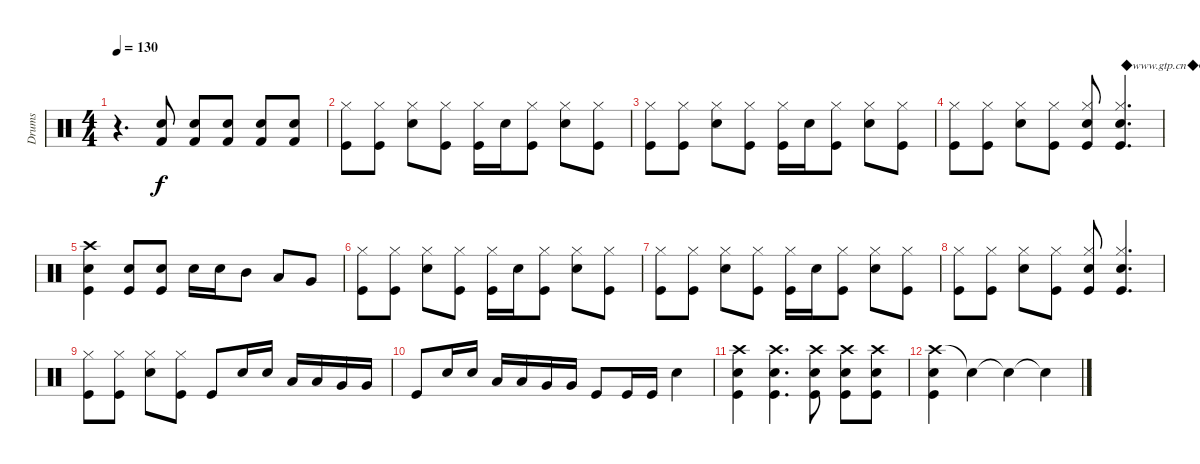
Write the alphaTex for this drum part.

\track ("Drums" "Drums") {instrument percussion}
\staff {score}
\articulation defaults
\ts (4 4)
\tempo 130
\clef neutral
\ks c
r.4{d dy f} ("Kick (hit) 2" "Snare (hit) 2").8 ("Kick (hit) 2" "Snare (hit) 2").8 ("Kick (hit) 2" "Snare (hit) 2").8 ("Kick (hit) 2" "Snare (hit) 2").8 ("Kick (hit) 2" "Snare (hit) 2").8 |
("Hi-Hat (closed)" "Kick (hit)").8 ("Hi-Hat (closed)" "Kick (hit)").8 ("Hi-Hat (closed)" "Snare (hit) 2").8 ("Hi-Hat (closed)" "Kick (hit)").8 ("Hi-Hat (closed)" "Kick (hit)").16 "Snare (hit) 2".16 ("Hi-Hat (closed)" "Kick (hit)").8 ("Hi-Hat (closed)" "Snare (hit) 2").8 ("Hi-Hat (closed)" "Kick (hit)").8 |
("Hi-Hat (closed)" "Kick (hit)").8 ("Hi-Hat (closed)" "Kick (hit)").8 ("Hi-Hat (closed)" "Snare (hit) 2").8 ("Hi-Hat (closed)" "Kick (hit)").8 ("Hi-Hat (closed)" "Kick (hit)").16 "Snare (hit) 2".16 ("Hi-Hat (closed)" "Kick (hit)").8 ("Hi-Hat (closed)" "Snare (hit) 2").8 ("Hi-Hat (closed)" "Kick (hit)").8 |
("Hi-Hat (closed)" "Kick (hit)").8 ("Hi-Hat (closed)" "Kick (hit)").8 ("Hi-Hat (closed)" "Snare (hit) 2").8 ("Hi-Hat (closed)" "Kick (hit)").8 ("Hi-Hat (closed)" "Snare (hit) 2" "Kick (hit)").8 ("Hi-Hat (closed)" "Snare (hit) 2" "Kick (hit)").4{d txt "◆www.gtp.cn◆GTP中文网为您提供优秀的GTP！"} |
("Crash high (hit)" "Snare (hit) 2" "Kick (hit)").4 ("Snare (hit) 2" "Kick (hit)").8 ("Snare (hit) 2" "Kick (hit)").8 "Snare (hit) 2".16 "Snare (hit) 2".16 "Mid Tom (hit)".8 "Low Tom (hit)".8 "Very Low Tom (hit)".8 |
("Hi-Hat (closed)" "Kick (hit)").8 ("Hi-Hat (closed)" "Kick (hit)").8 ("Hi-Hat (closed)" "Snare (hit) 2").8 ("Hi-Hat (closed)" "Kick (hit)").8 ("Hi-Hat (closed)" "Kick (hit)").16 "Snare (hit) 2".16 ("Hi-Hat (closed)" "Kick (hit)").8 ("Hi-Hat (closed)" "Snare (hit) 2").8 ("Hi-Hat (closed)" "Kick (hit)").8 |
("Hi-Hat (closed)" "Kick (hit)").8 ("Hi-Hat (closed)" "Kick (hit)").8 ("Hi-Hat (closed)" "Snare (hit) 2").8 ("Hi-Hat (closed)" "Kick (hit)").8 ("Hi-Hat (closed)" "Kick (hit)").16 "Snare (hit) 2".16 ("Hi-Hat (closed)" "Kick (hit)").8 ("Hi-Hat (closed)" "Snare (hit) 2").8 ("Hi-Hat (closed)" "Kick (hit)").8 |
("Hi-Hat (closed)" "Kick (hit)").8 ("Hi-Hat (closed)" "Kick (hit)").8 ("Hi-Hat (closed)" "Snare (hit) 2").8 ("Hi-Hat (closed)" "Kick (hit)").8 ("Hi-Hat (closed)" "Snare (hit) 2" "Kick (hit)").8 ("Hi-Hat (closed)" "Snare (hit) 2" "Kick (hit)").4{d} |
("Hi-Hat (closed)" "Kick (hit)").8 ("Hi-Hat (closed)" "Kick (hit)").8 ("Hi-Hat (closed)" "Snare (hit) 2").8 ("Hi-Hat (closed)" "Kick (hit)").8 "Kick (hit)".8 "Snare (hit) 2".16 "Snare (hit) 2".16 "Low Tom (hit)".16 "Low Tom (hit)".16 "Very Low Tom (hit)".16 "Very Low Tom (hit)".16 |
"Kick (hit)".8 "Snare (hit) 2".16 "Snare (hit) 2".16 "Low Tom (hit)".16 "Low Tom (hit)".16 "Very Low Tom (hit)".16 "Very Low Tom (hit)".16 "Kick (hit)".8 "Kick (hit)".16 "Kick (hit)".16 "Snare (hit) 2".4 |
("Crash high (hit)" "Kick (hit)" "Snare (hit) 2").4 ("Crash high (hit)" "Kick (hit)" "Snare (hit) 2").4{d} ("Crash high (hit)" "Kick (hit)" "Snare (hit) 2").8 ("Crash high (hit)" "Kick (hit)" "Snare (hit) 2").8 ("Crash high (hit)" "Kick (hit)" "Snare (hit) 2").8 |
("Crash high (hit)" "Kick (hit)" "Snare (hit) 2").4 "Snare (hit)"{t}.4 "Snare (hit)"{t}.4 "Snare (hit)"{t}.4
